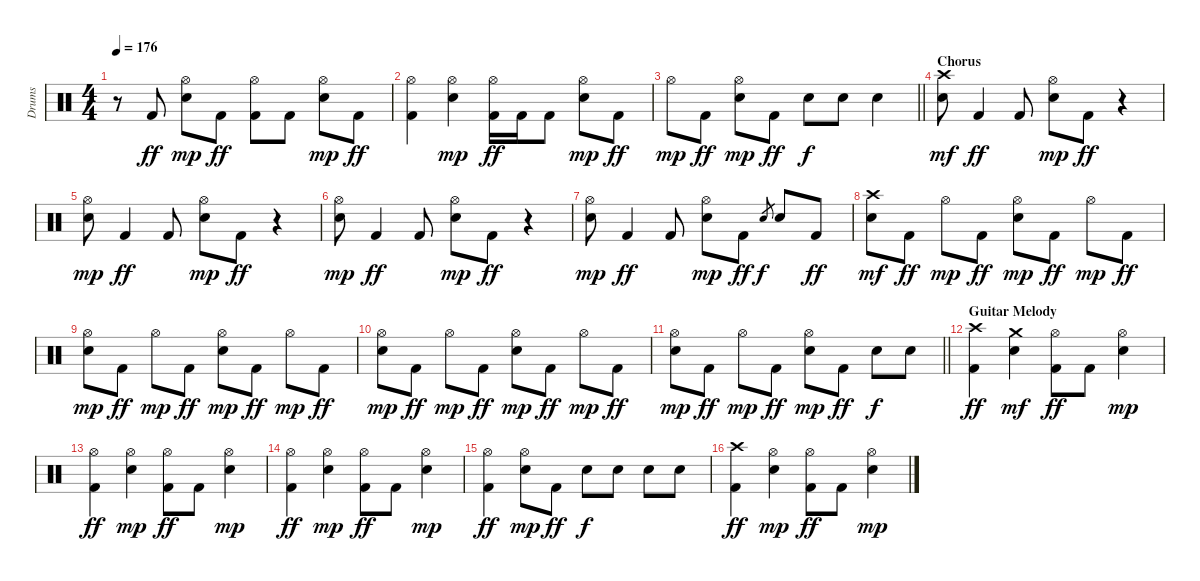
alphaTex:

\track ("Drums" "Drums") {instrument percussion}
\staff {score}
\articulation defaults
\ts (4 4)
\tempo 176
\clef neutral
\ks c
r.8{dy ff} "Kick (hit) 2".8 ("Hi-Hat (open)" "Electric Snare (hit)").8{dy mp} "Kick (hit) 2".8{dy ff} ("Hi-Hat (open)" "Kick (hit) 2").8 "Kick (hit) 2".8 ("Hi-Hat (open)" "Electric Snare (hit)").8{dy mp} "Kick (hit) 2".8{dy ff} |
("Hi-Hat (open)" "Kick (hit) 2").4 ("Hi-Hat (open)" "Electric Snare (hit)").4{dy mp} ("Hi-Hat (open)" "Kick (hit) 2").16{dy ff} "Kick (hit) 2".16 "Kick (hit) 2".8 ("Hi-Hat (open)" "Electric Snare (hit)").8{dy mp} "Kick (hit) 2".8{dy ff} |
\barLineRight lightlight "Hi-Hat (open)".8{dy mp} "Kick (hit) 2".8{dy ff}
("Hi-Hat (open)" "Electric Snare (hit)").8{dy mp} "Kick (hit) 2".8{dy ff} "Electric Snare (hit)".8{dy f} "Electric Snare (hit)".8 "Electric Snare (hit)".4 |
\section ("" "Chorus")
("Crash high (hit)" "Electric Snare (hit)").8{dy mf} "Kick (hit) 2".4{dy ff} "Kick (hit) 2".8 ("Hi-Hat (open)" "Electric Snare (hit)").8{dy mp} "Kick (hit) 2".8{dy ff} r.4 |
("Hi-Hat (open)" "Electric Snare (hit)").8{dy mp} "Kick (hit) 2".4{dy ff} "Kick (hit) 2".8 ("Hi-Hat (open)" "Electric Snare (hit)").8{dy mp} "Kick (hit) 2".8{dy ff} r.4 |
("Hi-Hat (open)" "Electric Snare (hit)").8{dy mp} "Kick (hit) 2".4{dy ff} "Kick (hit) 2".8 ("Hi-Hat (open)" "Electric Snare (hit)").8{dy mp} "Kick (hit) 2".8{dy ff} r.4 |
("Hi-Hat (open)" "Electric Snare (hit)").8{dy mp} "Kick (hit) 2".4{dy ff} "Kick (hit) 2".8 ("Hi-Hat (open)" "Electric Snare (hit)").8{dy mp} "Kick (hit) 2".8{dy ff} "Electric Snare (hit)".8{gr dy f} "Electric Snare (hit)".8 "Kick (hit) 2".8{dy ff} |
("Crash high (hit)" "Electric Snare (hit)").8{dy mf} "Kick (hit) 2".8{dy ff} "Hi-Hat (open)".8{dy mp} "Kick (hit) 2".8{dy ff} ("Hi-Hat (open)" "Electric Snare (hit)").8{dy mp} "Kick (hit) 2".8{dy ff} "Hi-Hat (open)".8{dy mp} "Kick (hit) 2".8{dy ff} |
("Hi-Hat (open)" "Electric Snare (hit)").8{dy mp} "Kick (hit) 2".8{dy ff} "Hi-Hat (open)".8{dy mp} "Kick (hit) 2".8{dy ff} ("Hi-Hat (open)" "Electric Snare (hit)").8{dy mp} "Kick (hit) 2".8{dy ff} "Hi-Hat (open)".8{dy mp} "Kick (hit) 2".8{dy ff} |
("Hi-Hat (open)" "Electric Snare (hit)").8{dy mp} "Kick (hit) 2".8{dy ff} "Hi-Hat (open)".8{dy mp} "Kick (hit) 2".8{dy ff} ("Hi-Hat (open)" "Electric Snare (hit)").8{dy mp} "Kick (hit) 2".8{dy ff} "Hi-Hat (open)".8{dy mp} "Kick (hit) 2".8{dy ff} |
\barLineRight lightlight
("Hi-Hat (open)" "Electric Snare (hit)").8{dy mp} "Kick (hit) 2".8{dy ff} "Hi-Hat (open)".8{dy mp} "Kick (hit) 2".8{dy ff} ("Hi-Hat (open)" "Electric Snare (hit)").8{dy mp} "Kick (hit) 2".8{dy ff} "Electric Snare (hit)".8{dy f} "Electric Snare (hit)".8 |
\section ("" "Guitar Melody")
("Crash high (hit)" "Kick (hit) 2").4{dy ff} ("Crash medium (hit)" "Electric Snare (hit)").4{dy mf} ("Hi-Hat (open)" "Kick (hit) 2").8{dy ff} "Kick (hit) 2".8 ("Hi-Hat (open)" "Electric Snare (hit)").4{dy mp} |
("Hi-Hat (open)" "Kick (hit) 2").4{dy ff} ("Hi-Hat (open)" "Electric Snare (hit)").4{dy mp} ("Hi-Hat (open)" "Kick (hit) 2").8{dy ff} "Kick (hit) 2".8 ("Hi-Hat (open)" "Electric Snare (hit)").4{dy mp} |
("Hi-Hat (open)" "Kick (hit) 2").4{dy ff} ("Hi-Hat (open)" "Electric Snare (hit)").4{dy mp} ("Hi-Hat (open)" "Kick (hit) 2").8{dy ff} "Kick (hit) 2".8 ("Hi-Hat (open)" "Electric Snare (hit)").4{dy mp} |
("Hi-Hat (open)" "Kick (hit) 2").4{dy ff} ("Hi-Hat (open)" "Electric Snare (hit)").8{dy mp} "Kick (hit) 2".8{dy ff} "Electric Snare (hit)".8{dy f} "Electric Snare (hit)".8 "Electric Snare (hit)".8 "Electric Snare (hit)".8 |
("Crash high (hit)" "Kick (hit) 2").4{dy ff} ("Hi-Hat (open)" "Electric Snare (hit)").4{dy mp} ("Hi-Hat (open)" "Kick (hit) 2").8{dy ff} "Kick (hit) 2".8 ("Hi-Hat (open)" "Electric Snare (hit)").4{dy mp}
